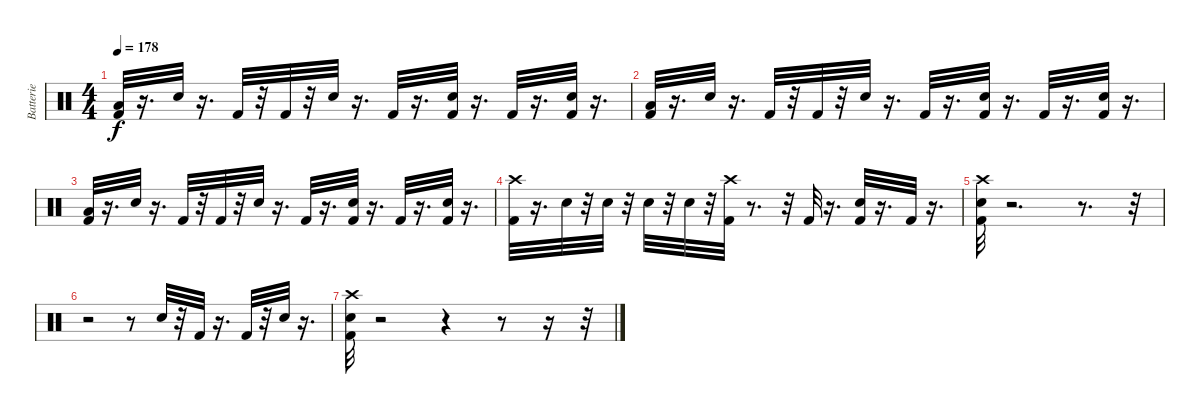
\track ("Batterie" "Batterie") {instrument percussion}
\staff {score}
\articulation defaults
\ts (4 4)
\tempo 178
\clef neutral
\ks c
("Kick (hit) 2" "Low Tom (hit)").32{dy f} r.16{d} "Electric Snare (hit)".32 r.16{d} "Kick (hit) 2".32 r.32 "Kick (hit) 2".32 r.32 "Electric Snare (hit)".32 r.16{d} "Kick (hit) 2".32 r.16{d} ("Kick (hit) 2" "Electric Snare (hit)").32 r.16{d} "Kick (hit) 2".32 r.16{d} ("Kick (hit) 2" "Electric Snare (hit)").32 r.16{d} |
("Kick (hit) 2" "Low Tom (hit)").32 r.16{d} "Electric Snare (hit)".32 r.16{d} "Kick (hit) 2".32 r.32 "Kick (hit) 2".32 r.32 "Electric Snare (hit)".32 r.16{d} "Kick (hit) 2".32 r.16{d} ("Kick (hit) 2" "Electric Snare (hit)").32 r.16{d} "Kick (hit) 2".32 r.16{d} ("Kick (hit) 2" "Electric Snare (hit)").32 r.16{d} |
("Kick (hit) 2" "Low Tom (hit)").32 r.16{d} "Electric Snare (hit)".32 r.16{d} "Kick (hit) 2".32 r.32 "Kick (hit) 2".32 r.32 "Electric Snare (hit)".32 r.16{d} "Kick (hit) 2".32 r.16{d} ("Kick (hit) 2" "Electric Snare (hit)").32 r.16{d} "Kick (hit) 2".32 r.16{d} ("Kick (hit) 2" "Electric Snare (hit)").32 r.16{d} |
("Kick (hit) 2" "Crash high (hit)").32 r.16{d} "Electric Snare (hit)".32 r.32 "Electric Snare (hit)".32 r.32 "Electric Snare (hit)".32 r.32 "Electric Snare (hit)".32 r.32 ("Crash high (hit)" "Kick (hit) 2").32 r.8{d} r.32 "Kick (hit) 2".32 r.16{d} ("Electric Snare (hit)" "Kick (hit) 2").32 r.16{d} "Kick (hit) 2".32 r.16{d} |
("Kick (hit) 2" "Crash high (hit)" "Electric Snare (hit)").32 r.2{d} r.8{d} r.32 |
r.2 r.8 "Electric Snare (hit)".32 r.32 "Kick (hit) 2".32 r.16{d} "Kick (hit) 2".32 r.32 "Electric Snare (hit)".32 r.16{d} |
("Crash high (hit)" "Kick (hit) 2" "Electric Snare (hit)").32 r.2 r.4 r.8 r.16 r.32
